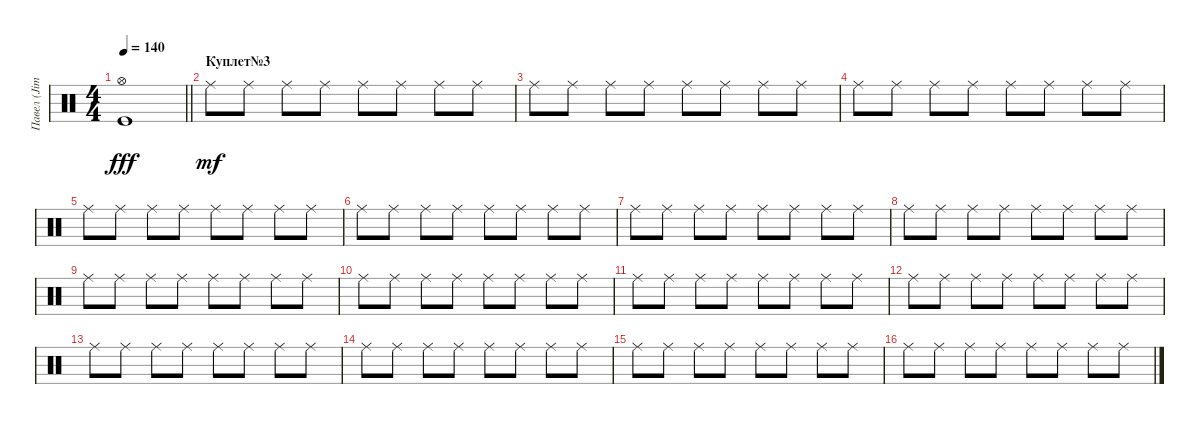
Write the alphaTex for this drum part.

\track ("Павел (Jimmy) Лохнин" "Павел (Jim") {instrument percussion}
\staff {score}
\articulation defaults
\ts (4 4)
\tempo 140
\clef neutral
\barLineRight lightlight
\ks c
("Kick (hit)" "Hi-Hat (open)").1{dy fff} |
\section ("" "Куплет№3")
"Ride (middle)".8{dy mf} "Ride (middle)".8 "Ride (middle)".8 "Ride (middle)".8 "Ride (middle)".8 "Ride (middle)".8 "Ride (middle)".8 "Ride (middle)".8 |
"Ride (middle)".8 "Ride (middle)".8 "Ride (middle)".8 "Ride (middle)".8 "Ride (middle)".8 "Ride (middle)".8 "Ride (middle)".8 "Ride (middle)".8 |
"Ride (middle)".8 "Ride (middle)".8 "Ride (middle)".8 "Ride (middle)".8 "Ride (middle)".8 "Ride (middle)".8 "Ride (middle)".8 "Ride (middle)".8 |
"Ride (middle)".8 "Ride (middle)".8 "Ride (middle)".8 "Ride (middle)".8 "Ride (middle)".8 "Ride (middle)".8 "Ride (middle)".8 "Ride (middle)".8 |
"Ride (middle)".8 "Ride (middle)".8 "Ride (middle)".8 "Ride (middle)".8 "Ride (middle)".8 "Ride (middle)".8 "Ride (middle)".8 "Ride (middle)".8 |
"Ride (middle)".8 "Ride (middle)".8 "Ride (middle)".8 "Ride (middle)".8 "Ride (middle)".8 "Ride (middle)".8 "Ride (middle)".8 "Ride (middle)".8 |
"Ride (middle)".8 "Ride (middle)".8 "Ride (middle)".8 "Ride (middle)".8 "Ride (middle)".8 "Ride (middle)".8 "Ride (middle)".8 "Ride (middle)".8 |
"Ride (middle)".8 "Ride (middle)".8 "Ride (middle)".8 "Ride (middle)".8 "Ride (middle)".8 "Ride (middle)".8 "Ride (middle)".8 "Ride (middle)".8 |
"Ride (middle)".8 "Ride (middle)".8 "Ride (middle)".8 "Ride (middle)".8 "Ride (middle)".8 "Ride (middle)".8 "Ride (middle)".8 "Ride (middle)".8 |
"Ride (middle)".8 "Ride (middle)".8 "Ride (middle)".8 "Ride (middle)".8 "Ride (middle)".8 "Ride (middle)".8 "Ride (middle)".8 "Ride (middle)".8 |
"Ride (middle)".8 "Ride (middle)".8 "Ride (middle)".8 "Ride (middle)".8 "Ride (middle)".8 "Ride (middle)".8 "Ride (middle)".8 "Ride (middle)".8 |
"Ride (middle)".8 "Ride (middle)".8 "Ride (middle)".8 "Ride (middle)".8 "Ride (middle)".8 "Ride (middle)".8 "Ride (middle)".8 "Ride (middle)".8 |
"Ride (middle)".8 "Ride (middle)".8 "Ride (middle)".8 "Ride (middle)".8 "Ride (middle)".8 "Ride (middle)".8 "Ride (middle)".8 "Ride (middle)".8 |
"Ride (middle)".8 "Ride (middle)".8 "Ride (middle)".8 "Ride (middle)".8 "Ride (middle)".8 "Ride (middle)".8 "Ride (middle)".8 "Ride (middle)".8 |
"Ride (middle)".8 "Ride (middle)".8 "Ride (middle)".8 "Ride (middle)".8 "Ride (middle)".8 "Ride (middle)".8 "Ride (middle)".8 "Ride (middle)".8
